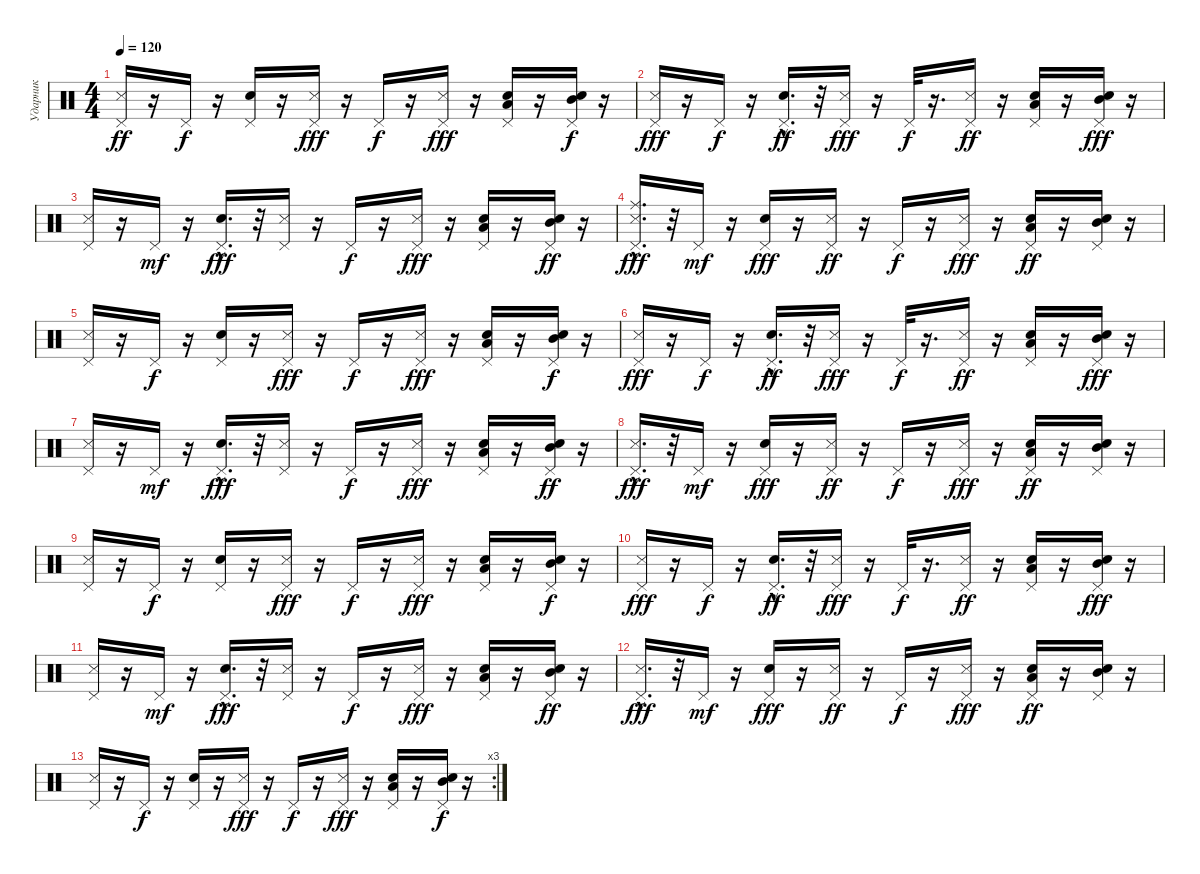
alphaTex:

\track ("Ударник" "Ударник") {instrument percussion}
\staff {score}
\articulation defaults
\ts (4 4)
\tempo 120
\clef neutral
\ks c
("Metronome (hit)" "Pedal Hi-Hat (hit)").16{dy ff} r.16 "Pedal Hi-Hat (hit)".16{dy f} r.16 ("Snare (hit) 2" "Pedal Hi-Hat (hit)").16 r.16 ("Metronome (hit)" "Pedal Hi-Hat (hit)").16{dy fff} r.16 "Pedal Hi-Hat (hit)".16{dy f} r.16 ("Metronome (hit)" "Pedal Hi-Hat (hit)").16{dy fff} r.16 ("Snare (hit) 2" "Low Tom (hit)" "Pedal Hi-Hat (hit)").16 r.16 ("Snare (hit) 2" "Mid Tom (hit)" "Pedal Hi-Hat (hit)").16{dy f} r.16 |
("Pedal Hi-Hat (hit)" "Metronome (hit)").16{dy fff} r.16 "Pedal Hi-Hat (hit)".16{dy f} r.16 ("Snare (hit) 2"{hac} "Pedal Hi-Hat (hit)").16{d dy ff} r.32 ("Metronome (hit)" "Pedal Hi-Hat (hit)").16{dy fff} r.16 "Pedal Hi-Hat (hit)".32{dy f} r.16{d} ("Metronome (hit)" "Pedal Hi-Hat (hit)").16{dy ff} r.16 ("Low Tom (hit)" "Snare (hit) 2" "Pedal Hi-Hat (hit)").16 r.16 ("Mid Tom (hit)" "Snare (hit) 2" "Pedal Hi-Hat (hit)").16{dy fff} r.16 |
("Pedal Hi-Hat (hit)" "Metronome (hit)").16 r.16 "Pedal Hi-Hat (hit)".16{dy mf} r.16 ("Pedal Hi-Hat (hit)" "Snare (hit) 2"{hac}).16{d dy fff} r.32 ("Pedal Hi-Hat (hit)" "Metronome (hit)").16 r.16 "Pedal Hi-Hat (hit)".16{dy f} r.16 ("Pedal Hi-Hat (hit)" "Metronome (hit)").16{dy fff} r.16 ("Low Tom (hit)" "Pedal Hi-Hat (hit)" "Snare (hit) 2").16 r.16 ("Mid Tom (hit)" "Pedal Hi-Hat (hit)" "Snare (hit) 2").16{dy ff} r.16 |
("Ride (middle)" "Pedal Hi-Hat (hit)" "Metronome (hit)"{hac}).16{d dy fff} r.32 "Pedal Hi-Hat (hit)".16{dy mf} r.16 ("Pedal Hi-Hat (hit)" "Snare (hit) 2").16{dy fff} r.16 ("Metronome (hit)" "Pedal Hi-Hat (hit)").16{dy ff} r.16 "Pedal Hi-Hat (hit)".16{dy f} r.16 ("Metronome (hit)" "Pedal Hi-Hat (hit)").16{dy fff} r.16 ("Snare (hit) 2" "Low Tom (hit)" "Pedal Hi-Hat (hit)").16{dy ff} r.16 ("Snare (hit) 2" "Mid Tom (hit)" "Pedal Hi-Hat (hit)").16 r.16 |
("Metronome (hit)" "Pedal Hi-Hat (hit)").16 r.16 "Pedal Hi-Hat (hit)".16{dy f} r.16 ("Snare (hit) 2" "Pedal Hi-Hat (hit)").16 r.16 ("Metronome (hit)" "Pedal Hi-Hat (hit)").16{dy fff} r.16 "Pedal Hi-Hat (hit)".16{dy f} r.16 ("Metronome (hit)" "Pedal Hi-Hat (hit)").16{dy fff} r.16 ("Snare (hit) 2" "Low Tom (hit)" "Pedal Hi-Hat (hit)").16 r.16 ("Snare (hit) 2" "Mid Tom (hit)" "Pedal Hi-Hat (hit)").16{dy f} r.16 |
("Pedal Hi-Hat (hit)" "Metronome (hit)").16{dy fff} r.16 "Pedal Hi-Hat (hit)".16{dy f} r.16 ("Snare (hit) 2"{hac} "Pedal Hi-Hat (hit)").16{d dy ff} r.32 ("Metronome (hit)" "Pedal Hi-Hat (hit)").16{dy fff} r.16 "Pedal Hi-Hat (hit)".32{dy f} r.16{d} ("Metronome (hit)" "Pedal Hi-Hat (hit)").16{dy ff} r.16 ("Low Tom (hit)" "Snare (hit) 2" "Pedal Hi-Hat (hit)").16 r.16 ("Mid Tom (hit)" "Snare (hit) 2" "Pedal Hi-Hat (hit)").16{dy fff} r.16 |
("Pedal Hi-Hat (hit)" "Metronome (hit)").16 r.16 "Pedal Hi-Hat (hit)".16{dy mf} r.16 ("Pedal Hi-Hat (hit)" "Snare (hit) 2"{hac}).16{d dy fff} r.32 ("Pedal Hi-Hat (hit)" "Metronome (hit)").16 r.16 "Pedal Hi-Hat (hit)".16{dy f} r.16 ("Pedal Hi-Hat (hit)" "Metronome (hit)").16{dy fff} r.16 ("Low Tom (hit)" "Pedal Hi-Hat (hit)" "Snare (hit) 2").16 r.16 ("Mid Tom (hit)" "Pedal Hi-Hat (hit)" "Snare (hit) 2").16{dy ff} r.16 |
("Pedal Hi-Hat (hit)" "Metronome (hit)"{hac}).16{d dy fff} r.32 "Pedal Hi-Hat (hit)".16{dy mf} r.16 ("Pedal Hi-Hat (hit)" "Snare (hit) 2").16{dy fff} r.16 ("Metronome (hit)" "Pedal Hi-Hat (hit)").16{dy ff} r.16 "Pedal Hi-Hat (hit)".16{dy f} r.16 ("Metronome (hit)" "Pedal Hi-Hat (hit)").16{dy fff} r.16 ("Snare (hit) 2" "Low Tom (hit)" "Pedal Hi-Hat (hit)").16{dy ff} r.16 ("Snare (hit) 2" "Mid Tom (hit)" "Pedal Hi-Hat (hit)").16 r.16 |
("Metronome (hit)" "Pedal Hi-Hat (hit)").16 r.16 "Pedal Hi-Hat (hit)".16{dy f} r.16 ("Snare (hit) 2" "Pedal Hi-Hat (hit)").16 r.16 ("Metronome (hit)" "Pedal Hi-Hat (hit)").16{dy fff} r.16 "Pedal Hi-Hat (hit)".16{dy f} r.16 ("Metronome (hit)" "Pedal Hi-Hat (hit)").16{dy fff} r.16 ("Snare (hit) 2" "Low Tom (hit)" "Pedal Hi-Hat (hit)").16 r.16 ("Snare (hit) 2" "Mid Tom (hit)" "Pedal Hi-Hat (hit)").16{dy f} r.16 |
("Pedal Hi-Hat (hit)" "Metronome (hit)").16{dy fff} r.16 "Pedal Hi-Hat (hit)".16{dy f} r.16 ("Snare (hit) 2"{hac} "Pedal Hi-Hat (hit)").16{d dy ff} r.32 ("Metronome (hit)" "Pedal Hi-Hat (hit)").16{dy fff} r.16 "Pedal Hi-Hat (hit)".32{dy f} r.16{d} ("Metronome (hit)" "Pedal Hi-Hat (hit)").16{dy ff} r.16 ("Low Tom (hit)" "Snare (hit) 2" "Pedal Hi-Hat (hit)").16 r.16 ("Mid Tom (hit)" "Snare (hit) 2" "Pedal Hi-Hat (hit)").16{dy fff} r.16 |
("Pedal Hi-Hat (hit)" "Metronome (hit)").16 r.16 "Pedal Hi-Hat (hit)".16{dy mf} r.16 ("Pedal Hi-Hat (hit)" "Snare (hit) 2"{hac}).16{d dy fff} r.32 ("Pedal Hi-Hat (hit)" "Metronome (hit)").16 r.16 "Pedal Hi-Hat (hit)".16{dy f} r.16 ("Pedal Hi-Hat (hit)" "Metronome (hit)").16{dy fff} r.16 ("Low Tom (hit)" "Pedal Hi-Hat (hit)" "Snare (hit) 2").16 r.16 ("Mid Tom (hit)" "Pedal Hi-Hat (hit)" "Snare (hit) 2").16{dy ff} r.16 |
("Pedal Hi-Hat (hit)" "Metronome (hit)"{hac}).16{d dy fff} r.32 "Pedal Hi-Hat (hit)".16{dy mf} r.16 ("Pedal Hi-Hat (hit)" "Snare (hit) 2").16{dy fff} r.16 ("Metronome (hit)" "Pedal Hi-Hat (hit)").16{dy ff} r.16 "Pedal Hi-Hat (hit)".16{dy f} r.16 ("Metronome (hit)" "Pedal Hi-Hat (hit)").16{dy fff} r.16 ("Snare (hit) 2" "Low Tom (hit)" "Pedal Hi-Hat (hit)").16{dy ff} r.16 ("Snare (hit) 2" "Mid Tom (hit)" "Pedal Hi-Hat (hit)").16 r.16 |
\rc 3
("Metronome (hit)" "Pedal Hi-Hat (hit)").16 r.16 "Pedal Hi-Hat (hit)".16{dy f} r.16 ("Snare (hit) 2" "Pedal Hi-Hat (hit)").16 r.16 ("Metronome (hit)" "Pedal Hi-Hat (hit)").16{dy fff} r.16 "Pedal Hi-Hat (hit)".16{dy f} r.16 ("Metronome (hit)" "Pedal Hi-Hat (hit)").16{dy fff} r.16 ("Snare (hit) 2" "Low Tom (hit)" "Pedal Hi-Hat (hit)").16 r.16 ("Snare (hit) 2" "Mid Tom (hit)" "Pedal Hi-Hat (hit)").16{dy f} r.16
